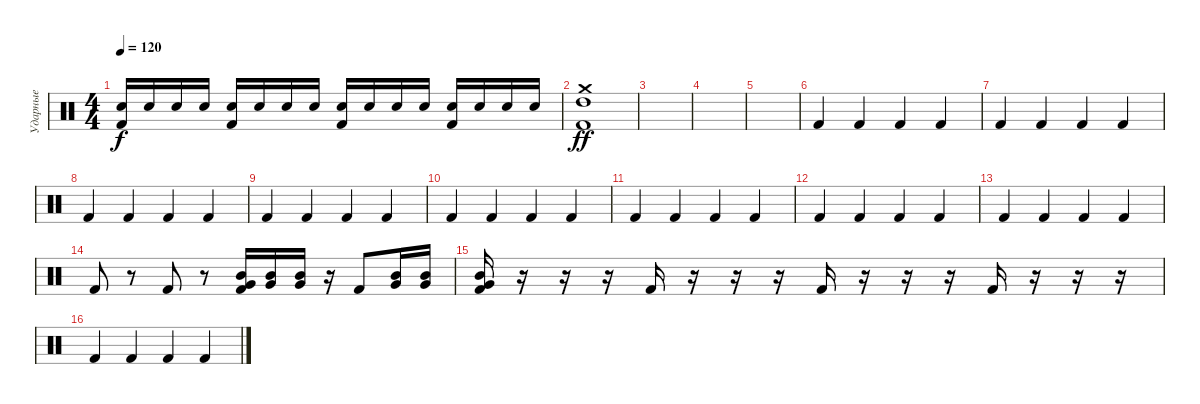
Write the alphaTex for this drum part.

\track ("Ударные" "Ударные") {instrument percussion}
\staff {score}
\articulation defaults
\ts (4 4)
\tempo 120
\clef neutral
\ks c
("Electric Snare (hit)" "Kick (hit) 2").16{dy f} "Electric Snare (hit)".16 "Electric Snare (hit)".16 "Electric Snare (hit)".16 ("Electric Snare (hit)" "Kick (hit) 2").16 "Electric Snare (hit)".16 "Electric Snare (hit)".16 "Electric Snare (hit)".16 ("Electric Snare (hit)" "Kick (hit) 2").16 "Electric Snare (hit)".16 "Electric Snare (hit)".16 "Electric Snare (hit)".16 ("Electric Snare (hit)" "Kick (hit) 2").16 "Electric Snare (hit)".16 "Electric Snare (hit)".16 "Electric Snare (hit)".16 |
("Crash medium (hit)" "High Tom (hit)" "Kick (hit) 2").1{dy ff} |
|
|
|
"Kick (hit) 2".4 "Kick (hit) 2".4 "Kick (hit) 2".4 "Kick (hit) 2".4 |
"Kick (hit) 2".4 "Kick (hit) 2".4 "Kick (hit) 2".4 "Kick (hit) 2".4 |
"Kick (hit) 2".4 "Kick (hit) 2".4 "Kick (hit) 2".4 "Kick (hit) 2".4 |
"Kick (hit) 2".4 "Kick (hit) 2".4 "Kick (hit) 2".4 "Kick (hit) 2".4 |
"Kick (hit) 2".4 "Kick (hit) 2".4 "Kick (hit) 2".4 "Kick (hit) 2".4 |
"Kick (hit) 2".4 "Kick (hit) 2".4 "Kick (hit) 2".4 "Kick (hit) 2".4 |
"Kick (hit) 2".4 "Kick (hit) 2".4 "Kick (hit) 2".4 "Kick (hit) 2".4 |
"Kick (hit) 2".4 "Kick (hit) 2".4 "Kick (hit) 2".4 "Kick (hit) 2".4 |
"Kick (hit) 2".8 r.8 "Kick (hit) 2".8 r.8 ("Mid Tom (hit)" "Very Low Tom (hit)" "Kick (hit) 2").16 ("Mid Tom (hit)" "Very Low Tom (hit)").16 ("Mid Tom (hit)" "Very Low Tom (hit)").16 r.16 "Kick (hit) 2".8 ("Mid Tom (hit)" "Very Low Tom (hit)").16 ("Mid Tom (hit)" "Very Low Tom (hit)").16 |
("Mid Tom (hit)" "Very Low Tom (hit)" "Kick (hit) 2").16 r.16 r.16 r.16 "Kick (hit) 2".16 r.16 r.16 r.16 "Kick (hit) 2".16 r.16 r.16 r.16 "Kick (hit) 2".16 r.16 r.16 r.16 |
"Kick (hit) 2".4 "Kick (hit) 2".4 "Kick (hit) 2".4 "Kick (hit) 2".4
